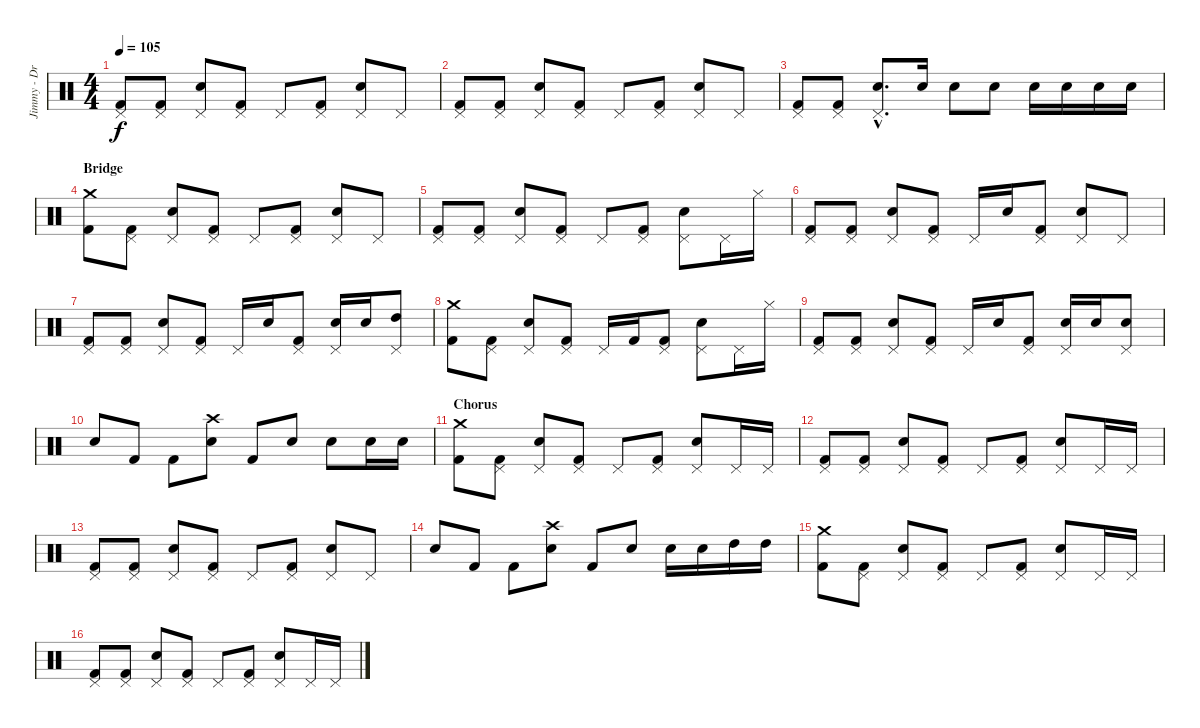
\track ("Jimmy - Drums" "Jimmy - Dr") {instrument percussion}
\staff {score}
\articulation defaults
\ts (4 4)
\tempo 105
\clef neutral
\ks c
("Pedal Hi-Hat (hit)" "Kick (hit) 2").8{dy f} ("Pedal Hi-Hat (hit)" "Kick (hit) 2").8 ("Pedal Hi-Hat (hit)" "Electric Snare (hit)").8 ("Pedal Hi-Hat (hit)" "Kick (hit) 2").8 "Pedal Hi-Hat (hit)".8 ("Pedal Hi-Hat (hit)" "Kick (hit) 2").8 ("Pedal Hi-Hat (hit)" "Electric Snare (hit)").8 "Pedal Hi-Hat (hit)".8 |
("Pedal Hi-Hat (hit)" "Kick (hit) 2").8 ("Pedal Hi-Hat (hit)" "Kick (hit) 2").8 ("Pedal Hi-Hat (hit)" "Electric Snare (hit)").8 ("Pedal Hi-Hat (hit)" "Kick (hit) 2").8 "Pedal Hi-Hat (hit)".8 ("Pedal Hi-Hat (hit)" "Kick (hit) 2").8 ("Pedal Hi-Hat (hit)" "Electric Snare (hit)").8 "Pedal Hi-Hat (hit)".8 |
("Pedal Hi-Hat (hit)" "Kick (hit) 2").8 ("Pedal Hi-Hat (hit)" "Kick (hit) 2").8 ("Pedal Hi-Hat (hit)"{hac} "Electric Snare (hit)"{hac}).8{d} "Electric Snare (hit)".16 "Electric Snare (hit)".8 "Electric Snare (hit)".8 "Electric Snare (hit)".16 "Electric Snare (hit)".16 "Electric Snare (hit)".16 "Electric Snare (hit)".16 |
\section ("" "Bridge")
("Crash medium (hit)" "Kick (hit) 2").8 ("Pedal Hi-Hat (hit)" "Kick (hit) 2").8 ("Pedal Hi-Hat (hit)" "Electric Snare (hit)").8 ("Pedal Hi-Hat (hit)" "Kick (hit) 2").8 "Pedal Hi-Hat (hit)".8 ("Pedal Hi-Hat (hit)" "Kick (hit) 2").8 ("Pedal Hi-Hat (hit)" "Electric Snare (hit)").8 "Pedal Hi-Hat (hit)".8 |
("Pedal Hi-Hat (hit)" "Kick (hit) 2").8 ("Pedal Hi-Hat (hit)" "Kick (hit) 2").8 ("Pedal Hi-Hat (hit)" "Electric Snare (hit)").8 ("Pedal Hi-Hat (hit)" "Kick (hit) 2").8 "Pedal Hi-Hat (hit)".8 ("Pedal Hi-Hat (hit)" "Kick (hit) 2").8 ("Pedal Hi-Hat (hit)" "Electric Snare (hit)").8 "Pedal Hi-Hat (hit)".16 "Hi-Hat (closed)".16 |
("Pedal Hi-Hat (hit)" "Kick (hit) 2").8 ("Pedal Hi-Hat (hit)" "Kick (hit) 2").8 ("Pedal Hi-Hat (hit)" "Electric Snare (hit)").8 ("Pedal Hi-Hat (hit)" "Kick (hit) 2").8 "Pedal Hi-Hat (hit)".16 "Electric Snare (hit)".16 ("Pedal Hi-Hat (hit)" "Kick (hit) 2").8 ("Pedal Hi-Hat (hit)" "Electric Snare (hit)").8 "Pedal Hi-Hat (hit)".8 |
("Pedal Hi-Hat (hit)" "Kick (hit) 2").8 ("Pedal Hi-Hat (hit)" "Kick (hit) 2").8 ("Pedal Hi-Hat (hit)" "Electric Snare (hit)").8 ("Pedal Hi-Hat (hit)" "Kick (hit) 2").8 "Pedal Hi-Hat (hit)".16 "Electric Snare (hit)".16 ("Pedal Hi-Hat (hit)" "Kick (hit) 2").8 ("Pedal Hi-Hat (hit)" "Electric Snare (hit)").16 "Electric Snare (hit)".16 ("Pedal Hi-Hat (hit)" "High Tom (hit)").8 |
("Crash medium (hit)" "Kick (hit) 2").8 ("Pedal Hi-Hat (hit)" "Kick (hit) 2").8 ("Pedal Hi-Hat (hit)" "Electric Snare (hit)").8 ("Pedal Hi-Hat (hit)" "Kick (hit) 2").8 "Pedal Hi-Hat (hit)".16 "Kick (hit) 2".16 ("Pedal Hi-Hat (hit)" "Kick (hit) 2").8 ("Pedal Hi-Hat (hit)" "Electric Snare (hit)").8 "Pedal Hi-Hat (hit)".16 "Hi-Hat (closed)".16 |
("Pedal Hi-Hat (hit)" "Kick (hit) 2").8 ("Pedal Hi-Hat (hit)" "Kick (hit) 2").8 ("Pedal Hi-Hat (hit)" "Electric Snare (hit)").8 ("Pedal Hi-Hat (hit)" "Kick (hit) 2").8 "Pedal Hi-Hat (hit)".16 "Electric Snare (hit)".16 ("Pedal Hi-Hat (hit)" "Kick (hit) 2").8 ("Pedal Hi-Hat (hit)" "Electric Snare (hit)").16 "Electric Snare (hit)".16 ("Pedal Hi-Hat (hit)" "Electric Snare (hit)").8 |
"Electric Snare (hit)".8 "Kick (hit) 2".8 "Kick (hit) 2".8 ("Crash high (hit)" "Electric Snare (hit)").8 "Kick (hit) 2".8 "Electric Snare (hit)".8 "Electric Snare (hit)".8 "Electric Snare (hit)".16 "Electric Snare (hit)".16 |
\section ("" "Chorus")
("Crash medium (hit)" "Kick (hit) 2").8 ("Pedal Hi-Hat (hit)" "Kick (hit) 2").8 ("Pedal Hi-Hat (hit)" "Electric Snare (hit)").8 ("Pedal Hi-Hat (hit)" "Kick (hit) 2").8 "Pedal Hi-Hat (hit)".8 ("Pedal Hi-Hat (hit)" "Kick (hit) 2").8 ("Pedal Hi-Hat (hit)" "Electric Snare (hit)").8 "Pedal Hi-Hat (hit)".16 "Pedal Hi-Hat (hit)".16 |
("Pedal Hi-Hat (hit)" "Kick (hit) 2").8 ("Pedal Hi-Hat (hit)" "Kick (hit) 2").8 ("Pedal Hi-Hat (hit)" "Electric Snare (hit)").8 ("Pedal Hi-Hat (hit)" "Kick (hit) 2").8 "Pedal Hi-Hat (hit)".8 ("Pedal Hi-Hat (hit)" "Kick (hit) 2").8 ("Pedal Hi-Hat (hit)" "Electric Snare (hit)").8 "Pedal Hi-Hat (hit)".16 "Pedal Hi-Hat (hit)".16 |
("Pedal Hi-Hat (hit)" "Kick (hit) 2").8 ("Pedal Hi-Hat (hit)" "Kick (hit) 2").8 ("Pedal Hi-Hat (hit)" "Electric Snare (hit)").8 ("Pedal Hi-Hat (hit)" "Kick (hit) 2").8 "Pedal Hi-Hat (hit)".8 ("Pedal Hi-Hat (hit)" "Kick (hit) 2").8 ("Pedal Hi-Hat (hit)" "Electric Snare (hit)").8 "Pedal Hi-Hat (hit)".8 |
"Electric Snare (hit)".8 "Kick (hit) 2".8 "Kick (hit) 2".8 ("Crash high (hit)" "Electric Snare (hit)").8 "Kick (hit) 2".8 "Electric Snare (hit)".8 "Electric Snare (hit)".16 "Electric Snare (hit)".16 "High Tom (hit)".16 "High Tom (hit)".16 |
("Crash medium (hit)" "Kick (hit) 2").8 ("Pedal Hi-Hat (hit)" "Kick (hit) 2").8 ("Pedal Hi-Hat (hit)" "Electric Snare (hit)").8 ("Pedal Hi-Hat (hit)" "Kick (hit) 2").8 "Pedal Hi-Hat (hit)".8 ("Pedal Hi-Hat (hit)" "Kick (hit) 2").8 ("Pedal Hi-Hat (hit)" "Electric Snare (hit)").8 "Pedal Hi-Hat (hit)".16 "Pedal Hi-Hat (hit)".16 |
("Pedal Hi-Hat (hit)" "Kick (hit) 2").8 ("Pedal Hi-Hat (hit)" "Kick (hit) 2").8 ("Pedal Hi-Hat (hit)" "Electric Snare (hit)").8 ("Pedal Hi-Hat (hit)" "Kick (hit) 2").8 "Pedal Hi-Hat (hit)".8 ("Pedal Hi-Hat (hit)" "Kick (hit) 2").8 ("Pedal Hi-Hat (hit)" "Electric Snare (hit)").8 "Pedal Hi-Hat (hit)".16 "Pedal Hi-Hat (hit)".16
